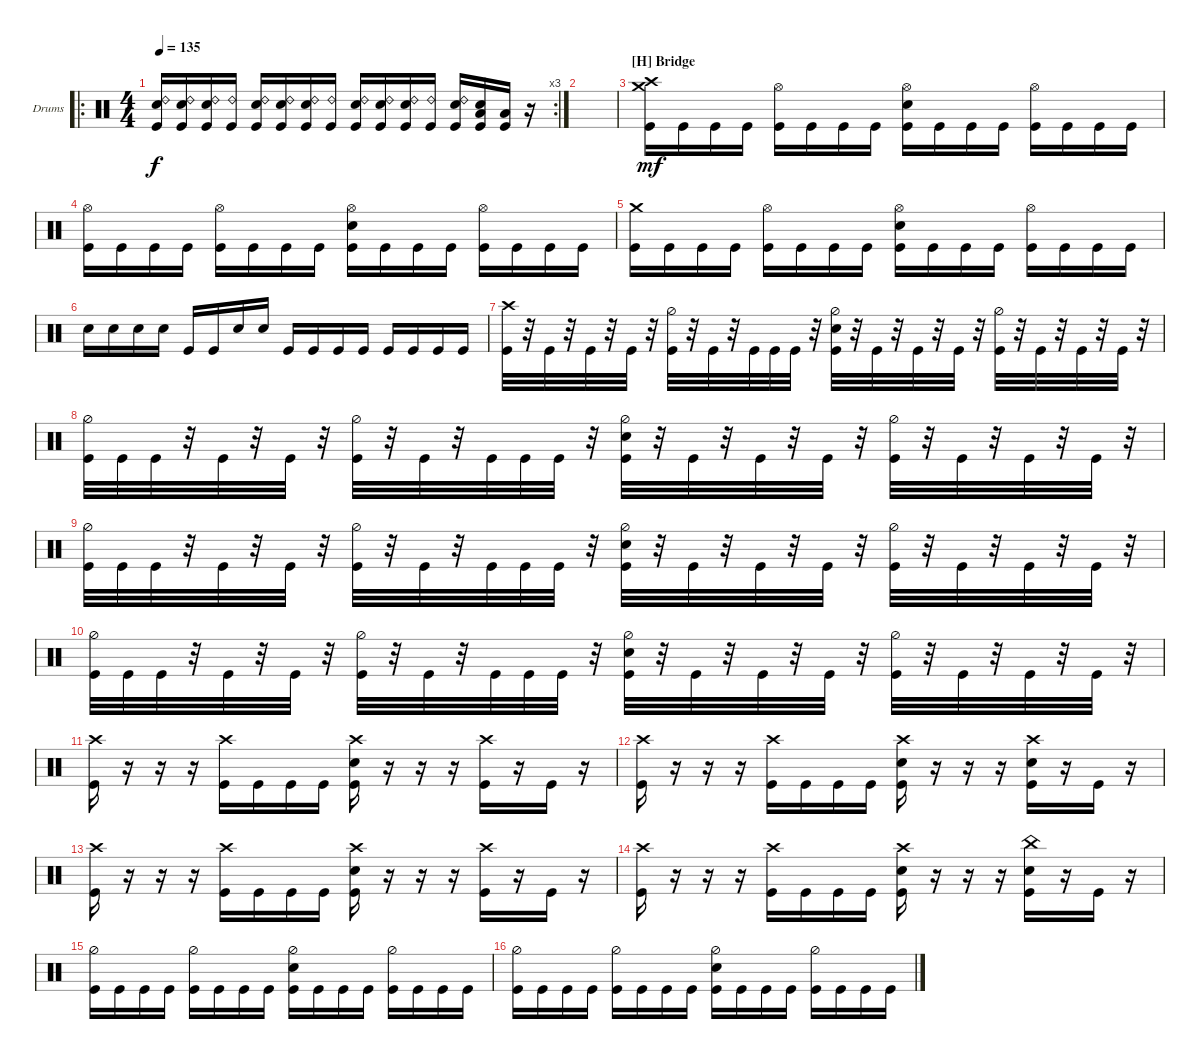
\bracketExtendMode groupsimilarinstruments
\firstSystemTrackNameOrientation horizontal
\otherSystemsTrackNameOrientation horizontal
\track ("Drumkit" "Drums") {instrument percussion}
\staff {score}
\articulation defaults
\ro
\rc 3
\ts (4 4)
\tempo 135
\clef neutral
\ks c
("Kick (hit)" "Snare (hit) 2" "Ride (bell) 2").16{dy f} ("Kick (hit)" "Snare (hit) 2" "Ride (bell) 2").16 ("Kick (hit)" "Snare (hit) 2" "Ride (bell) 2").16 ("Kick (hit)" "Ride (bell) 2").16 ("Kick (hit)" "Snare (hit) 2" "Ride (bell) 2").16 ("Kick (hit)" "Snare (hit) 2" "Ride (bell) 2").16 ("Kick (hit)" "Snare (hit) 2" "Ride (bell) 2").16 ("Kick (hit)" "Ride (bell) 2").16 ("Kick (hit)" "Snare (hit) 2" "Ride (bell) 2").16 ("Kick (hit)" "Snare (hit) 2" "Ride (bell) 2").16 ("Kick (hit)" "Snare (hit) 2" "Ride (bell) 2").16 ("Kick (hit)" "Ride (bell) 2").16 ("Kick (hit)" "Snare (hit) 2" "Ride (bell) 2").16 ("Kick (hit)" "Snare (hit) 2" "Low Tom (hit)").16 ("Kick (hit)" "Low Tom (hit)").16 r.16 |
|
\section ("H" "Bridge")
("Kick (hit)" "Crash high (hit)" "Crash medium (hit)").16{dy mf} "Kick (hit)".16 "Kick (hit)".16 "Kick (hit)".16 ("Kick (hit)" "Hi-Hat (open)").16 "Kick (hit)".16 "Kick (hit)".16 "Kick (hit)".16 ("Kick (hit)" "Snare (hit) 2" "Hi-Hat (open)").16 "Kick (hit)".16 "Kick (hit)".16 "Kick (hit)".16 ("Kick (hit)" "Hi-Hat (open)").16 "Kick (hit)".16 "Kick (hit)".16 "Kick (hit)".16 |
("Kick (hit)" "Hi-Hat (open)").16 "Kick (hit)".16 "Kick (hit)".16 "Kick (hit)".16 ("Kick (hit)" "Hi-Hat (open)").16 "Kick (hit)".16 "Kick (hit)".16 "Kick (hit)".16 ("Kick (hit)" "Snare (hit) 2" "Hi-Hat (open)").16 "Kick (hit)".16 "Kick (hit)".16 "Kick (hit)".16 ("Kick (hit)" "Hi-Hat (open)").16 "Kick (hit)".16 "Kick (hit)".16 "Kick (hit)".16 |
("Kick (hit)" "Crash medium (hit)").16 "Kick (hit)".16 "Kick (hit)".16 "Kick (hit)".16 ("Kick (hit)" "Hi-Hat (open)").16 "Kick (hit)".16 "Kick (hit)".16 "Kick (hit)".16 ("Kick (hit)" "Snare (hit) 2" "Hi-Hat (open)").16 "Kick (hit)".16 "Kick (hit)".16 "Kick (hit)".16 ("Kick (hit)" "Hi-Hat (open)").16 "Kick (hit)".16 "Kick (hit)".16 "Kick (hit)".16 |
"Snare (hit) 2".16 "Snare (hit) 2".16 "Snare (hit) 2".16 "Snare (hit) 2".16 "Kick (hit)".16 "Kick (hit)".16 "Snare (hit) 2".16 "Snare (hit) 2".16 "Kick (hit)".16 "Kick (hit)".16 "Kick (hit)".16 "Kick (hit)".16 "Kick (hit)".16 "Kick (hit)".16 "Kick (hit)".16 "Kick (hit)".16 |
("Kick (hit)" "Crash high (hit)").32 r.32 "Kick (hit)".32 r.32 "Kick (hit)".32 r.32 "Kick (hit)".32 r.32 ("Hi-Hat (half)" "Kick (hit)").32 r.32 "Kick (hit)".32 r.32 "Kick (hit)".32 "Kick (hit)".32 "Kick (hit)".32 r.32 ("Kick (hit)" "Hi-Hat (half)" "Snare (hit) 2").32 r.32 "Kick (hit)".32 r.32 "Kick (hit)".32 r.32 "Kick (hit)".32 r.32 ("Kick (hit)" "Hi-Hat (half)").32 r.32 "Kick (hit)".32 r.32 "Kick (hit)".32 r.32 "Kick (hit)".32 r.32 |
("Kick (hit)" "Hi-Hat (half)").32 "Kick (hit)".32 "Kick (hit)".32 r.32 "Kick (hit)".32 r.32 "Kick (hit)".32 r.32 ("Hi-Hat (half)" "Kick (hit)").32 r.32 "Kick (hit)".32 r.32 "Kick (hit)".32 "Kick (hit)".32 "Kick (hit)".32 r.32 ("Kick (hit)" "Hi-Hat (half)" "Snare (hit) 2").32 r.32 "Kick (hit)".32 r.32 "Kick (hit)".32 r.32 "Kick (hit)".32 r.32 ("Kick (hit)" "Hi-Hat (half)").32 r.32 "Kick (hit)".32 r.32 "Kick (hit)".32 r.32 "Kick (hit)".32 r.32 |
("Kick (hit)" "Hi-Hat (half)").32 "Kick (hit)".32 "Kick (hit)".32 r.32 "Kick (hit)".32 r.32 "Kick (hit)".32 r.32 ("Hi-Hat (half)" "Kick (hit)").32 r.32 "Kick (hit)".32 r.32 "Kick (hit)".32 "Kick (hit)".32 "Kick (hit)".32 r.32 ("Kick (hit)" "Hi-Hat (half)" "Snare (hit) 2").32 r.32 "Kick (hit)".32 r.32 "Kick (hit)".32 r.32 "Kick (hit)".32 r.32 ("Kick (hit)" "Hi-Hat (half)").32 r.32 "Kick (hit)".32 r.32 "Kick (hit)".32 r.32 "Kick (hit)".32 r.32 |
("Kick (hit)" "Hi-Hat (half)").32 "Kick (hit)".32 "Kick (hit)".32 r.32 "Kick (hit)".32 r.32 "Kick (hit)".32 r.32 ("Hi-Hat (half)" "Kick (hit)").32 r.32 "Kick (hit)".32 r.32 "Kick (hit)".32 "Kick (hit)".32 "Kick (hit)".32 r.32 ("Kick (hit)" "Hi-Hat (half)" "Snare (hit) 2").32 r.32 "Kick (hit)".32 r.32 "Kick (hit)".32 r.32 "Kick (hit)".32 r.32 ("Kick (hit)" "Hi-Hat (half)").32 r.32 "Kick (hit)".32 r.32 "Kick (hit)".32 r.32 "Kick (hit)".32 r.32 |
("Kick (hit)" "Crash high (hit)").16 r.16 r.16 r.16 ("Kick (hit)" "Crash high (hit)").16 "Kick (hit)".16 "Kick (hit)".16 "Kick (hit)".16 ("Kick (hit)" "Snare (hit) 2" "Crash high (hit)").16 r.16 r.16 r.16 ("Kick (hit)" "Crash high (hit)").16 r.16 "Kick (hit)".16 r.16 |
("Crash high (hit)" "Kick (hit)").16 r.16 r.16 r.16 ("Kick (hit)" "Crash high (hit)").16 "Kick (hit)".16 "Kick (hit)".16 "Kick (hit)".16 ("Kick (hit)" "Snare (hit) 2" "Crash high (hit)").16 r.16 r.16 r.16 ("Kick (hit)" "Crash high (hit)" "Snare (hit) 2").16 r.16 "Kick (hit)".16 r.16 |
("Kick (hit)" "Crash high (hit)").16 r.16 r.16 r.16 ("Kick (hit)" "Crash high (hit)").16 "Kick (hit)".16 "Kick (hit)".16 "Kick (hit)".16 ("Kick (hit)" "Snare (hit) 2" "Crash high (hit)").16 r.16 r.16 r.16 ("Kick (hit)" "Crash high (hit)").16 r.16 "Kick (hit)".16 r.16 |
("Crash high (hit)" "Kick (hit)").16 r.16 r.16 r.16 ("Kick (hit)" "Crash high (hit)").16 "Kick (hit)".16 "Kick (hit)".16 "Kick (hit)".16 ("Kick (hit)" "Snare (hit) 2" "Crash high (hit)").16 r.16 r.16 r.16 ("Kick (hit)" "Snare (hit) 2" "China (hit)").16 r.16 "Kick (hit)".16 r.16 |
("Kick (hit)" "Hi-Hat (half)").16 "Kick (hit)".16 "Kick (hit)".16 "Kick (hit)".16 ("Kick (hit)" "Hi-Hat (half)").16 "Kick (hit)".16 "Kick (hit)".16 "Kick (hit)".16 ("Kick (hit)" "Snare (hit) 2" "Hi-Hat (half)").16 "Kick (hit)".16 "Kick (hit)".16 "Kick (hit)".16 ("Kick (hit)" "Hi-Hat (half)").16 "Kick (hit)".16 "Kick (hit)".16 "Kick (hit)".16 |
("Kick (hit)" "Hi-Hat (half)").16 "Kick (hit)".16 "Kick (hit)".16 "Kick (hit)".16 ("Kick (hit)" "Hi-Hat (half)").16 "Kick (hit)".16 "Kick (hit)".16 "Kick (hit)".16 ("Kick (hit)" "Snare (hit) 2" "Hi-Hat (half)").16 "Kick (hit)".16 "Kick (hit)".16 "Kick (hit)".16 ("Kick (hit)" "Hi-Hat (half)").16 "Kick (hit)".16 "Kick (hit)".16 "Kick (hit)".16
